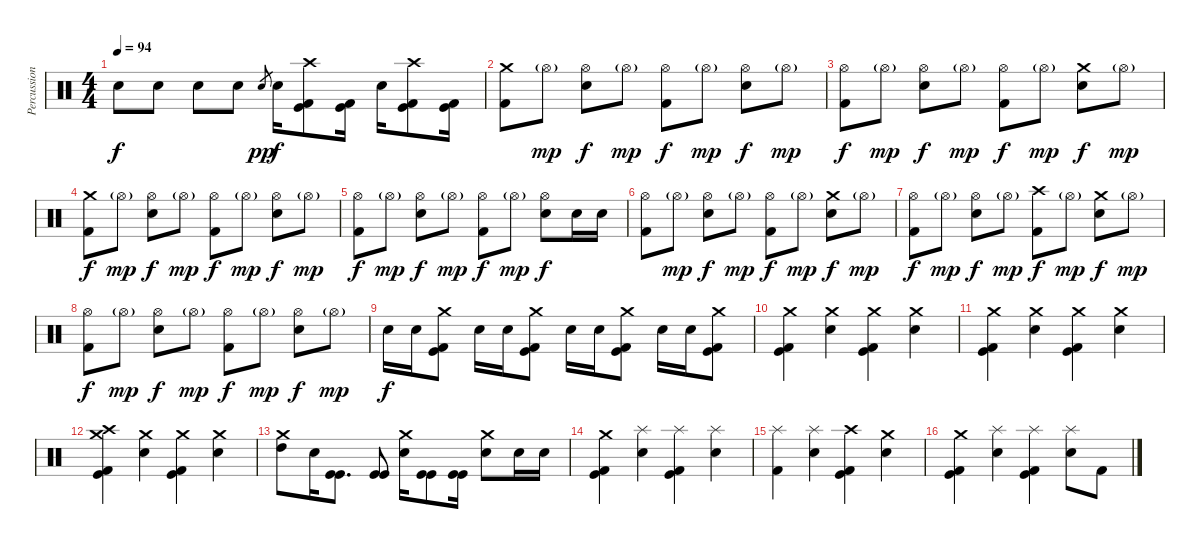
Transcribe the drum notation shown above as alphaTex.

\track ("Percussion" "Percussion") {solo instrument percussion}
\staff {score}
\articulation defaults
\ts (4 4)
\tempo 94
\clef neutral
\ks c "Electric Snare (hit)".8{dy f} "Electric Snare (hit)".8 "Electric Snare (hit)".8 "Electric Snare (hit)".8 "Snare (hit) 2".8{gr dy pp} "Electric Snare (hit)".16{dy f}
("Crash high (hit)" "Kick (hit) 2" "Kick (hit)").8 ("Kick (hit) 2" "Kick (hit)").16 "Electric Snare (hit)".16 ("Crash high (hit)" "Kick (hit) 2" "Kick (hit)").8 ("Kick (hit) 2" "Kick (hit)").16 |
("Crash medium (hit)" "Kick (hit) 2").8 "Hi-Hat (open)"{g}.8{dy mp} ("Hi-Hat (open)" "Electric Snare (hit)").8{dy f} "Hi-Hat (open)"{g}.8{dy mp} ("Hi-Hat (open)" "Kick (hit) 2").8{dy f} "Hi-Hat (open)"{g}.8{dy mp} ("Hi-Hat (open)" "Electric Snare (hit)").8{dy f} "Hi-Hat (open)"{g}.8{dy mp} |
("Hi-Hat (open)" "Kick (hit) 2").8{dy f} "Hi-Hat (open)"{g}.8{dy mp} ("Hi-Hat (open)" "Electric Snare (hit)").8{dy f} "Hi-Hat (open)"{g}.8{dy mp} ("Hi-Hat (open)" "Kick (hit) 2").8{dy f} "Hi-Hat (open)"{g}.8{dy mp} ("Crash medium (hit)" "Electric Snare (hit)").8{dy f} "Hi-Hat (open)"{g}.8{dy mp} |
("Crash medium (hit)" "Kick (hit) 2").8{dy f} "Hi-Hat (open)"{g}.8{dy mp} ("Hi-Hat (open)" "Electric Snare (hit)").8{dy f} "Hi-Hat (open)"{g}.8{dy mp} ("Hi-Hat (open)" "Kick (hit) 2").8{dy f} "Hi-Hat (open)"{g}.8{dy mp} ("Hi-Hat (open)" "Electric Snare (hit)").8{dy f} "Hi-Hat (open)"{g}.8{dy mp} |
("Hi-Hat (open)" "Kick (hit) 2").8{dy f} "Hi-Hat (open)"{g}.8{dy mp} ("Hi-Hat (open)" "Electric Snare (hit)").8{dy f} "Hi-Hat (open)"{g}.8{dy mp} ("Hi-Hat (open)" "Kick (hit) 2").8{dy f} "Hi-Hat (open)"{g}.8{dy mp} ("Hi-Hat (open)" "Electric Snare (hit)").8{dy f} "Electric Snare (hit)".16 "Electric Snare (hit)".16 |
("Hi-Hat (open)" "Kick (hit) 2").8 "Hi-Hat (open)"{g}.8{dy mp} ("Hi-Hat (open)" "Electric Snare (hit)").8{dy f} "Hi-Hat (open)"{g}.8{dy mp} ("Hi-Hat (open)" "Kick (hit) 2").8{dy f} "Hi-Hat (open)"{g}.8{dy mp} ("Crash medium (hit)" "Electric Snare (hit)").8{dy f} "Hi-Hat (open)"{g}.8{dy mp} |
("Hi-Hat (open)" "Kick (hit) 2").8{dy f} "Hi-Hat (open)"{g}.8{dy mp} ("Hi-Hat (open)" "Electric Snare (hit)").8{dy f} "Hi-Hat (open)"{g}.8{dy mp} ("Crash high (hit)" "Kick (hit) 2").8{dy f} "Hi-Hat (open)"{g}.8{dy mp} ("Crash medium (hit)" "Electric Snare (hit)").8{dy f} "Hi-Hat (open)"{g}.8{dy mp} |
("Hi-Hat (open)" "Kick (hit) 2").8{dy f} "Hi-Hat (open)"{g}.8{dy mp} ("Hi-Hat (open)" "Electric Snare (hit)").8{dy f} "Hi-Hat (open)"{g}.8{dy mp} ("Hi-Hat (open)" "Kick (hit) 2").8{dy f} "Hi-Hat (open)"{g}.8{dy mp} ("Hi-Hat (open)" "Electric Snare (hit)").8{dy f} "Hi-Hat (open)"{g}.8{dy mp} |
"Electric Snare (hit)".16{dy f} "Electric Snare (hit)".16 ("Kick (hit) 2" "Crash medium (hit)" "Kick (hit)").8 "Electric Snare (hit)".16 "Electric Snare (hit)".16 ("Kick (hit) 2" "Crash medium (hit)" "Kick (hit)").8 "Electric Snare (hit)".16 "Electric Snare (hit)".16 ("Kick (hit) 2" "Crash medium (hit)" "Kick (hit)").8 "Electric Snare (hit)".16 "Electric Snare (hit)".16 ("Kick (hit) 2" "Crash medium (hit)" "Kick (hit)").8 |
("Kick (hit) 2" "Crash medium (hit)" "Kick (hit)").4 ("Crash medium (hit)" "Electric Snare (hit)").4 ("Kick (hit) 2" "Crash medium (hit)" "Kick (hit)").4 ("Crash medium (hit)" "Electric Snare (hit)").4 |
("Kick (hit) 2" "Crash medium (hit)" "Kick (hit)").4 ("Crash medium (hit)" "Electric Snare (hit)").4 ("Kick (hit) 2" "Crash medium (hit)" "Kick (hit)").4 ("Crash medium (hit)" "Electric Snare (hit)").4 |
("Kick (hit) 2" "Crash high (hit)" "Crash medium (hit)" "Kick (hit)").4 ("Crash medium (hit)" "Electric Snare (hit)").4 ("Kick (hit) 2" "Crash medium (hit)" "Kick (hit)").4 ("Crash medium (hit)" "Electric Snare (hit)").4 |
("Crash medium (hit)" "High Tom (hit)").8 "Electric Snare (hit)".16 ("Kick (hit)" "Kick (hit)").8{d} ("Kick (hit)" "Kick (hit)").8 ("Crash medium (hit)" "Electric Snare (hit)").16 ("Kick (hit)" "Kick (hit)").8 ("Kick (hit)" "Kick (hit)").16 ("Crash medium (hit)" "Electric Snare (hit)").8 "Electric Snare (hit)".16 "Electric Snare (hit)".16 |
("Crash medium (hit)" "Kick (hit)" "Kick (hit) 2").4 ("Splash (hit)" "Electric Snare (hit)").4 ("Kick (hit) 2" "Splash (hit)" "Kick (hit)").4 ("Splash (hit)" "Electric Snare (hit)").4 |
("Splash (hit)" "Kick (hit) 2").4 ("Splash (hit)" "Electric Snare (hit)").4 ("Crash high (hit)" "Kick (hit) 2" "Kick (hit)").4 ("Crash medium (hit)" "Electric Snare (hit)").4 |
("Crash medium (hit)" "Kick (hit)" "Kick (hit) 2").4 ("Splash (hit)" "Electric Snare (hit)").4 ("Kick (hit) 2" "Splash (hit)" "Kick (hit)").4 ("Splash (hit)" "Electric Snare (hit)").8 "Kick (hit) 2".8
